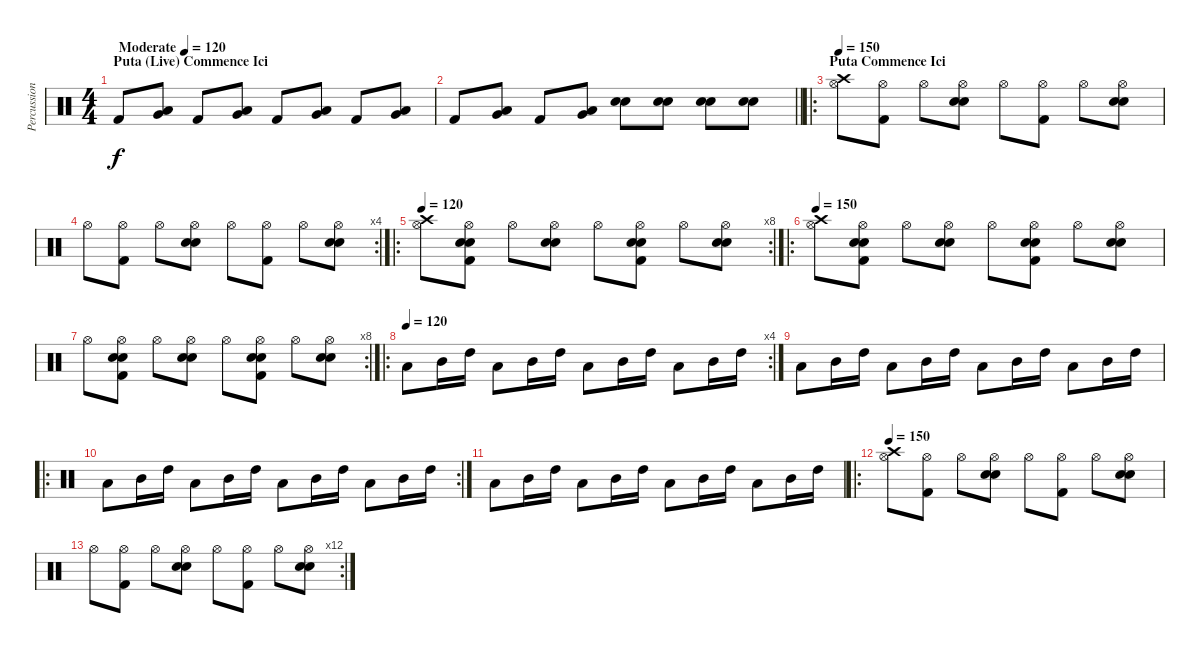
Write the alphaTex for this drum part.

\track ("Percussions" "Percussion") {instrument percussion}
\staff {score}
\articulation defaults
\ts (4 4)
\section ("" "Puta (Live) Commence Ici")
\tempo (120 "Moderate")
\clef neutral
\ks c "Kick (hit) 2".8{dy f}
("Low Floor Tom (hit)" "Very Low Tom (hit)").8{bd 240} "Kick (hit) 2".8 ("Low Floor Tom (hit)" "Very Low Tom (hit)").8{bd 240} "Kick (hit) 2".8 ("Low Floor Tom (hit)" "Very Low Tom (hit)").8{bd 240} "Kick (hit) 2".8 ("Low Floor Tom (hit)" "Very Low Tom (hit)").8{bd 240} |
\barLineRight lightlight "Kick (hit) 2".8
("Low Floor Tom (hit)" "Very Low Tom (hit)").8{bd 240} "Kick (hit) 2".8 ("Low Floor Tom (hit)" "Very Low Tom (hit)").8{bd 240} ("Electric Snare (hit)" "Electric Snare (hit)").8{bd 240} ("Electric Snare (hit)" "Electric Snare (hit)").8{bd 240} ("Electric Snare (hit)" "Electric Snare (hit)").8{bd 240} ("Electric Snare (hit)" "Electric Snare (hit)").8{bd 240} |
\ro
\section ("" "Puta Commence Ici")
\tempo 150
("Hi-Hat (open)" "Crash high (hit)").8 ("Hi-Hat (open)" "Kick (hit) 2").8 "Hi-Hat (open)".8 ("Hi-Hat (open)" "Snare (hit) 2" "Electric Snare (hit)").8 "Hi-Hat (open)".8 ("Hi-Hat (open)" "Kick (hit) 2").8 "Hi-Hat (open)".8 ("Hi-Hat (open)" "Snare (hit) 2" "Electric Snare (hit)").8 |
\rc 4 "Hi-Hat (open)".8
("Hi-Hat (open)" "Kick (hit) 2").8 "Hi-Hat (open)".8 ("Hi-Hat (open)" "Snare (hit) 2" "Electric Snare (hit)").8 "Hi-Hat (open)".8 ("Hi-Hat (open)" "Kick (hit) 2").8 "Hi-Hat (open)".8 ("Hi-Hat (open)" "Snare (hit) 2" "Electric Snare (hit)").8 |
\ro
\rc 8
\tempo 120
("Hi-Hat (open)" "Crash high (hit)").8 ("Hi-Hat (open)" "Kick (hit) 2" "Snare (hit) 2" "Electric Snare (hit)").8 "Hi-Hat (open)".8 ("Hi-Hat (open)" "Snare (hit) 2" "Electric Snare (hit)").8 "Hi-Hat (open)".8 ("Hi-Hat (open)" "Kick (hit) 2" "Snare (hit) 2" "Electric Snare (hit)").8 "Hi-Hat (open)".8 ("Hi-Hat (open)" "Snare (hit) 2" "Electric Snare (hit)").8 |
\ro
\tempo 150
("Hi-Hat (open)" "Crash high (hit)").8 ("Hi-Hat (open)" "Kick (hit) 2" "Snare (hit) 2" "Electric Snare (hit)").8 "Hi-Hat (open)".8 ("Hi-Hat (open)" "Snare (hit) 2" "Electric Snare (hit)").8 "Hi-Hat (open)".8 ("Hi-Hat (open)" "Kick (hit) 2" "Snare (hit) 2" "Electric Snare (hit)").8 "Hi-Hat (open)".8 ("Hi-Hat (open)" "Snare (hit) 2" "Electric Snare (hit)").8 |
\rc 8 "Hi-Hat (open)".8
("Hi-Hat (open)" "Kick (hit) 2" "Snare (hit) 2" "Electric Snare (hit)").8 "Hi-Hat (open)".8 ("Hi-Hat (open)" "Snare (hit) 2" "Electric Snare (hit)").8 "Hi-Hat (open)".8 ("Hi-Hat (open)" "Kick (hit) 2" "Snare (hit) 2" "Electric Snare (hit)").8 "Hi-Hat (open)".8 ("Hi-Hat (open)" "Snare (hit) 2" "Electric Snare (hit)").8 |
\ro
\rc 4
\tempo (120)
"Low Floor Tom (hit)".8 "Mid Tom (hit)".16 "High Tom (hit)".16 "Low Floor Tom (hit)".8 "Mid Tom (hit)".16 "High Tom (hit)".16 "Low Floor Tom (hit)".8 "Mid Tom (hit)".16 "High Tom (hit)".16 "Low Floor Tom (hit)".8 "Mid Tom (hit)".16 "High Tom (hit)".16 |
"Low Floor Tom (hit)".8 "Mid Tom (hit)".16 "High Tom (hit)".16 "Low Floor Tom (hit)".8 "Mid Tom (hit)".16 "High Tom (hit)".16 "Low Floor Tom (hit)".8 "Mid Tom (hit)".16 "High Tom (hit)".16 "Low Floor Tom (hit)".8 "Mid Tom (hit)".16 "High Tom (hit)".16 |
\ro
\rc 2 "Low Floor Tom (hit)".8 "Mid Tom (hit)".16 "High Tom (hit)".16 "Low Floor Tom (hit)".8 "Mid Tom (hit)".16 "High Tom (hit)".16 "Low Floor Tom (hit)".8 "Mid Tom (hit)".16 "High Tom (hit)".16 "Low Floor Tom (hit)".8 "Mid Tom (hit)".16 "High Tom (hit)".16
|
"Low Floor Tom (hit)".8 "Mid Tom (hit)".16 "High Tom (hit)".16 "Low Floor Tom (hit)".8 "Mid Tom (hit)".16 "High Tom (hit)".16 "Low Floor Tom (hit)".8 "Mid Tom (hit)".16 "High Tom (hit)".16 "Low Floor Tom (hit)".8 "Mid Tom (hit)".16 "High Tom (hit)".16 |
\ro
\tempo 150
("Hi-Hat (open)" "Crash high (hit)").8 ("Hi-Hat (open)" "Kick (hit) 2").8 "Hi-Hat (open)".8 ("Hi-Hat (open)" "Snare (hit) 2" "Electric Snare (hit)").8 "Hi-Hat (open)".8 ("Hi-Hat (open)" "Kick (hit) 2").8 "Hi-Hat (open)".8 ("Hi-Hat (open)" "Snare (hit) 2" "Electric Snare (hit)").8 |
\rc 12 "Hi-Hat (open)".8
("Hi-Hat (open)" "Kick (hit) 2").8 "Hi-Hat (open)".8 ("Hi-Hat (open)" "Snare (hit) 2" "Electric Snare (hit)").8 "Hi-Hat (open)".8 ("Hi-Hat (open)" "Kick (hit) 2").8 "Hi-Hat (open)".8 ("Hi-Hat (open)" "Snare (hit) 2" "Electric Snare (hit)").8
